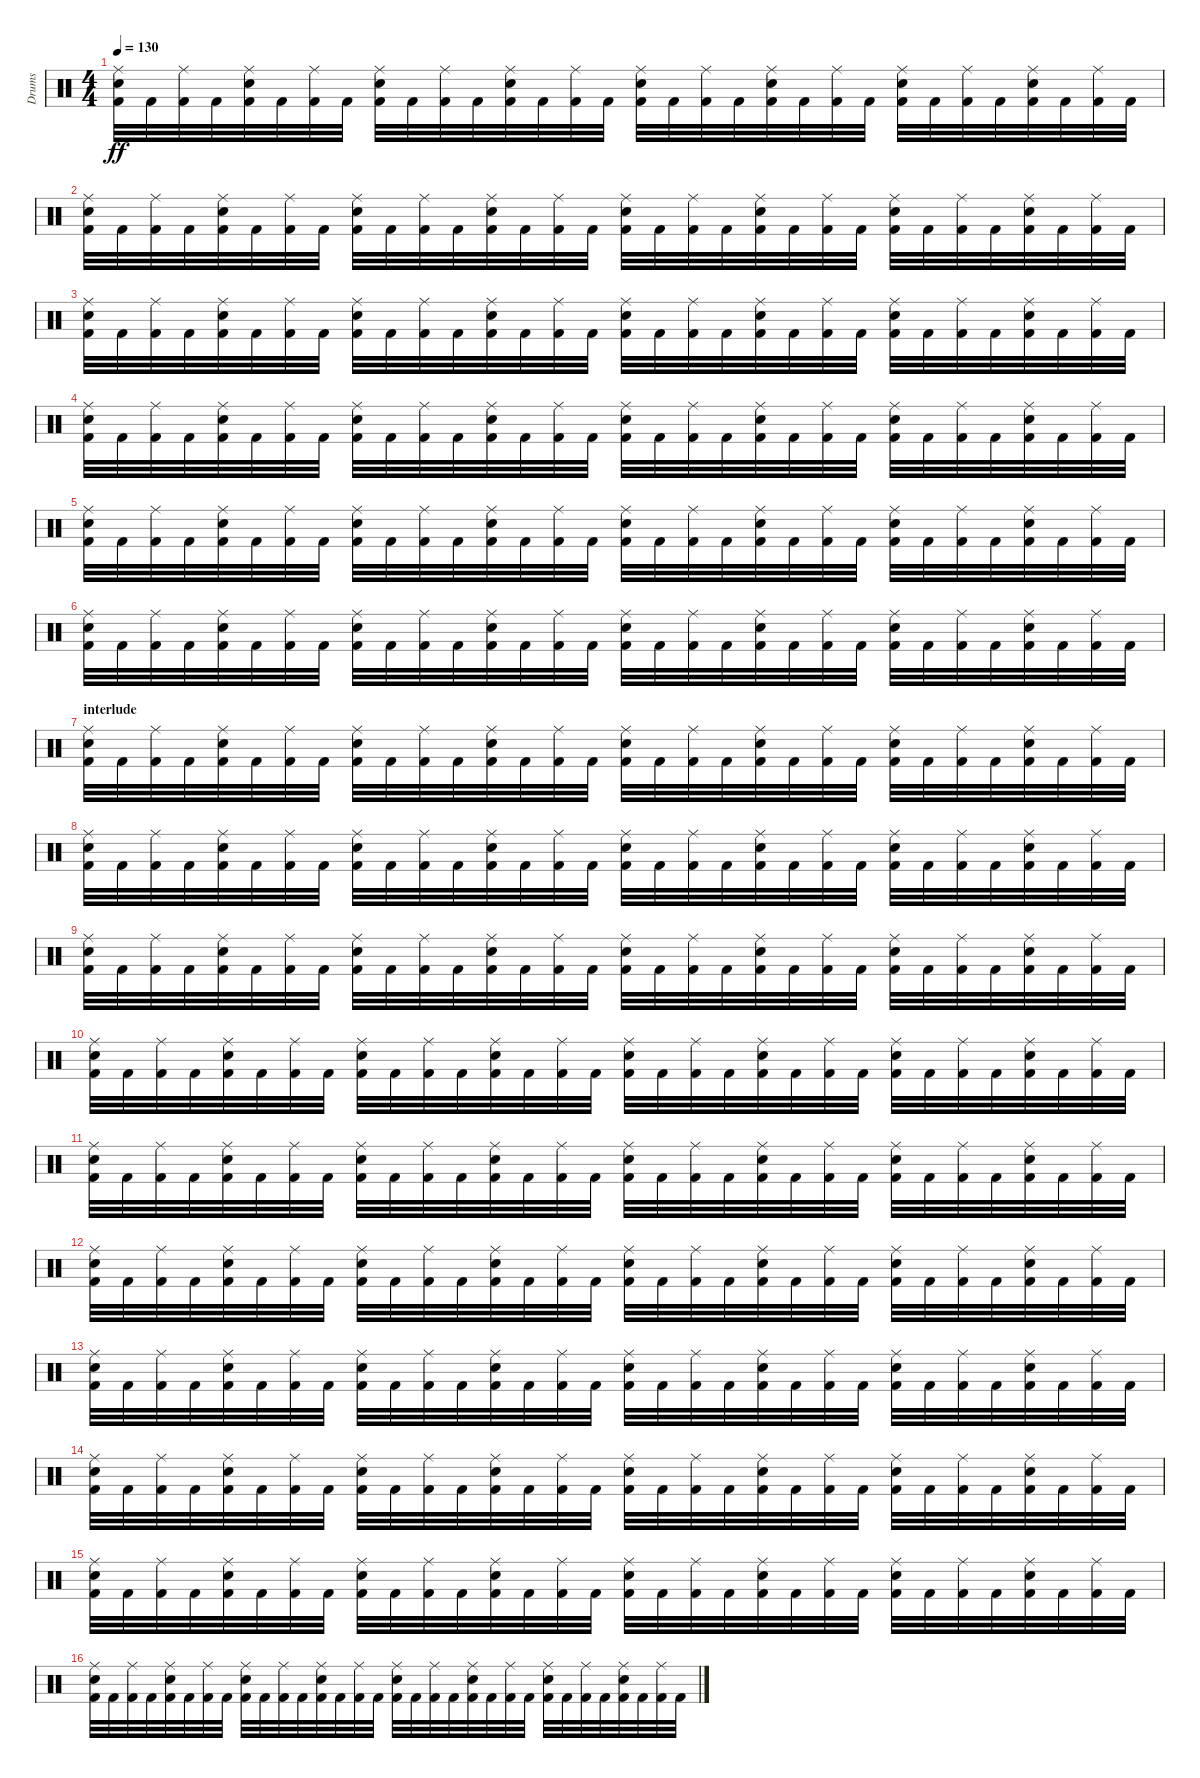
\track ("Drums" "Drums") {instrument percussion}
\staff {score}
\articulation defaults
\ts (4 4)
\tempo 130
\clef neutral
\ks c
("Electric Snare (hit)" "Ride (middle)" "Kick (hit) 2").32{dy ff} "Kick (hit) 2".32 ("Ride (middle)" "Kick (hit) 2").32 "Kick (hit) 2".32 ("Electric Snare (hit)" "Ride (middle)" "Kick (hit) 2").32 "Kick (hit) 2".32 ("Ride (middle)" "Kick (hit) 2").32 "Kick (hit) 2".32 ("Electric Snare (hit)" "Ride (middle)" "Kick (hit) 2").32 "Kick (hit) 2".32 ("Ride (middle)" "Kick (hit) 2").32 "Kick (hit) 2".32 ("Electric Snare (hit)" "Ride (middle)" "Kick (hit) 2").32 "Kick (hit) 2".32 ("Ride (middle)" "Kick (hit) 2").32 "Kick (hit) 2".32 ("Electric Snare (hit)" "Ride (middle)" "Kick (hit) 2").32 "Kick (hit) 2".32 ("Ride (middle)" "Kick (hit) 2").32 "Kick (hit) 2".32 ("Electric Snare (hit)" "Ride (middle)" "Kick (hit) 2").32 "Kick (hit) 2".32 ("Ride (middle)" "Kick (hit) 2").32 "Kick (hit) 2".32 ("Electric Snare (hit)" "Ride (middle)" "Kick (hit) 2").32 "Kick (hit) 2".32 ("Ride (middle)" "Kick (hit) 2").32 "Kick (hit) 2".32 ("Electric Snare (hit)" "Ride (middle)" "Kick (hit) 2").32 "Kick (hit) 2".32 ("Ride (middle)" "Kick (hit) 2").32 "Kick (hit) 2".32 |
("Electric Snare (hit)" "Ride (middle)" "Kick (hit) 2").32 "Kick (hit) 2".32 ("Ride (middle)" "Kick (hit) 2").32 "Kick (hit) 2".32 ("Electric Snare (hit)" "Ride (middle)" "Kick (hit) 2").32 "Kick (hit) 2".32 ("Ride (middle)" "Kick (hit) 2").32 "Kick (hit) 2".32 ("Electric Snare (hit)" "Ride (middle)" "Kick (hit) 2").32 "Kick (hit) 2".32 ("Ride (middle)" "Kick (hit) 2").32 "Kick (hit) 2".32 ("Electric Snare (hit)" "Ride (middle)" "Kick (hit) 2").32 "Kick (hit) 2".32 ("Ride (middle)" "Kick (hit) 2").32 "Kick (hit) 2".32 ("Electric Snare (hit)" "Ride (middle)" "Kick (hit) 2").32 "Kick (hit) 2".32 ("Ride (middle)" "Kick (hit) 2").32 "Kick (hit) 2".32 ("Electric Snare (hit)" "Ride (middle)" "Kick (hit) 2").32 "Kick (hit) 2".32 ("Ride (middle)" "Kick (hit) 2").32 "Kick (hit) 2".32 ("Electric Snare (hit)" "Ride (middle)" "Kick (hit) 2").32 "Kick (hit) 2".32 ("Ride (middle)" "Kick (hit) 2").32 "Kick (hit) 2".32 ("Electric Snare (hit)" "Ride (middle)" "Kick (hit) 2").32 "Kick (hit) 2".32 ("Ride (middle)" "Kick (hit) 2").32 "Kick (hit) 2".32 |
("Electric Snare (hit)" "Ride (middle)" "Kick (hit) 2").32 "Kick (hit) 2".32 ("Ride (middle)" "Kick (hit) 2").32 "Kick (hit) 2".32 ("Electric Snare (hit)" "Ride (middle)" "Kick (hit) 2").32 "Kick (hit) 2".32 ("Ride (middle)" "Kick (hit) 2").32 "Kick (hit) 2".32 ("Electric Snare (hit)" "Ride (middle)" "Kick (hit) 2").32 "Kick (hit) 2".32 ("Ride (middle)" "Kick (hit) 2").32 "Kick (hit) 2".32 ("Electric Snare (hit)" "Ride (middle)" "Kick (hit) 2").32 "Kick (hit) 2".32 ("Ride (middle)" "Kick (hit) 2").32 "Kick (hit) 2".32 ("Electric Snare (hit)" "Ride (middle)" "Kick (hit) 2").32 "Kick (hit) 2".32 ("Ride (middle)" "Kick (hit) 2").32 "Kick (hit) 2".32 ("Electric Snare (hit)" "Ride (middle)" "Kick (hit) 2").32 "Kick (hit) 2".32 ("Ride (middle)" "Kick (hit) 2").32 "Kick (hit) 2".32 ("Electric Snare (hit)" "Ride (middle)" "Kick (hit) 2").32 "Kick (hit) 2".32 ("Ride (middle)" "Kick (hit) 2").32 "Kick (hit) 2".32 ("Electric Snare (hit)" "Ride (middle)" "Kick (hit) 2").32 "Kick (hit) 2".32 ("Ride (middle)" "Kick (hit) 2").32 "Kick (hit) 2".32 |
("Electric Snare (hit)" "Ride (middle)" "Kick (hit) 2").32 "Kick (hit) 2".32 ("Ride (middle)" "Kick (hit) 2").32 "Kick (hit) 2".32 ("Electric Snare (hit)" "Ride (middle)" "Kick (hit) 2").32 "Kick (hit) 2".32 ("Ride (middle)" "Kick (hit) 2").32 "Kick (hit) 2".32 ("Electric Snare (hit)" "Ride (middle)" "Kick (hit) 2").32 "Kick (hit) 2".32 ("Ride (middle)" "Kick (hit) 2").32 "Kick (hit) 2".32 ("Electric Snare (hit)" "Ride (middle)" "Kick (hit) 2").32 "Kick (hit) 2".32 ("Ride (middle)" "Kick (hit) 2").32 "Kick (hit) 2".32 ("Electric Snare (hit)" "Ride (middle)" "Kick (hit) 2").32 "Kick (hit) 2".32 ("Ride (middle)" "Kick (hit) 2").32 "Kick (hit) 2".32 ("Electric Snare (hit)" "Ride (middle)" "Kick (hit) 2").32 "Kick (hit) 2".32 ("Ride (middle)" "Kick (hit) 2").32 "Kick (hit) 2".32 ("Electric Snare (hit)" "Ride (middle)" "Kick (hit) 2").32 "Kick (hit) 2".32 ("Ride (middle)" "Kick (hit) 2").32 "Kick (hit) 2".32 ("Electric Snare (hit)" "Ride (middle)" "Kick (hit) 2").32 "Kick (hit) 2".32 ("Ride (middle)" "Kick (hit) 2").32 "Kick (hit) 2".32 |
("Electric Snare (hit)" "Ride (middle)" "Kick (hit) 2").32 "Kick (hit) 2".32 ("Ride (middle)" "Kick (hit) 2").32 "Kick (hit) 2".32 ("Electric Snare (hit)" "Ride (middle)" "Kick (hit) 2").32 "Kick (hit) 2".32 ("Ride (middle)" "Kick (hit) 2").32 "Kick (hit) 2".32 ("Electric Snare (hit)" "Ride (middle)" "Kick (hit) 2").32 "Kick (hit) 2".32 ("Ride (middle)" "Kick (hit) 2").32 "Kick (hit) 2".32 ("Electric Snare (hit)" "Ride (middle)" "Kick (hit) 2").32 "Kick (hit) 2".32 ("Ride (middle)" "Kick (hit) 2").32 "Kick (hit) 2".32 ("Electric Snare (hit)" "Ride (middle)" "Kick (hit) 2").32 "Kick (hit) 2".32 ("Ride (middle)" "Kick (hit) 2").32 "Kick (hit) 2".32 ("Electric Snare (hit)" "Ride (middle)" "Kick (hit) 2").32 "Kick (hit) 2".32 ("Ride (middle)" "Kick (hit) 2").32 "Kick (hit) 2".32 ("Electric Snare (hit)" "Ride (middle)" "Kick (hit) 2").32 "Kick (hit) 2".32 ("Ride (middle)" "Kick (hit) 2").32 "Kick (hit) 2".32 ("Electric Snare (hit)" "Ride (middle)" "Kick (hit) 2").32 "Kick (hit) 2".32 ("Ride (middle)" "Kick (hit) 2").32 "Kick (hit) 2".32 |
("Electric Snare (hit)" "Ride (middle)" "Kick (hit) 2").32 "Kick (hit) 2".32 ("Ride (middle)" "Kick (hit) 2").32 "Kick (hit) 2".32 ("Electric Snare (hit)" "Ride (middle)" "Kick (hit) 2").32 "Kick (hit) 2".32 ("Ride (middle)" "Kick (hit) 2").32 "Kick (hit) 2".32 ("Electric Snare (hit)" "Ride (middle)" "Kick (hit) 2").32 "Kick (hit) 2".32 ("Ride (middle)" "Kick (hit) 2").32 "Kick (hit) 2".32 ("Electric Snare (hit)" "Ride (middle)" "Kick (hit) 2").32 "Kick (hit) 2".32 ("Ride (middle)" "Kick (hit) 2").32 "Kick (hit) 2".32 ("Electric Snare (hit)" "Ride (middle)" "Kick (hit) 2").32 "Kick (hit) 2".32 ("Ride (middle)" "Kick (hit) 2").32 "Kick (hit) 2".32 ("Electric Snare (hit)" "Ride (middle)" "Kick (hit) 2").32 "Kick (hit) 2".32 ("Ride (middle)" "Kick (hit) 2").32 "Kick (hit) 2".32 ("Electric Snare (hit)" "Ride (middle)" "Kick (hit) 2").32 "Kick (hit) 2".32 ("Ride (middle)" "Kick (hit) 2").32 "Kick (hit) 2".32 ("Electric Snare (hit)" "Ride (middle)" "Kick (hit) 2").32 "Kick (hit) 2".32 ("Ride (middle)" "Kick (hit) 2").32 "Kick (hit) 2".32 |
\section ("" "interlude")
("Electric Snare (hit)" "Ride (middle)" "Kick (hit) 2").32 "Kick (hit) 2".32 ("Ride (middle)" "Kick (hit) 2").32 "Kick (hit) 2".32 ("Electric Snare (hit)" "Ride (middle)" "Kick (hit) 2").32 "Kick (hit) 2".32 ("Ride (middle)" "Kick (hit) 2").32 "Kick (hit) 2".32 ("Electric Snare (hit)" "Ride (middle)" "Kick (hit) 2").32 "Kick (hit) 2".32 ("Ride (middle)" "Kick (hit) 2").32 "Kick (hit) 2".32 ("Electric Snare (hit)" "Ride (middle)" "Kick (hit) 2").32 "Kick (hit) 2".32 ("Ride (middle)" "Kick (hit) 2").32 "Kick (hit) 2".32 ("Electric Snare (hit)" "Ride (middle)" "Kick (hit) 2").32 "Kick (hit) 2".32 ("Ride (middle)" "Kick (hit) 2").32 "Kick (hit) 2".32 ("Electric Snare (hit)" "Ride (middle)" "Kick (hit) 2").32 "Kick (hit) 2".32 ("Ride (middle)" "Kick (hit) 2").32 "Kick (hit) 2".32 ("Electric Snare (hit)" "Ride (middle)" "Kick (hit) 2").32 "Kick (hit) 2".32 ("Ride (middle)" "Kick (hit) 2").32 "Kick (hit) 2".32 ("Electric Snare (hit)" "Ride (middle)" "Kick (hit) 2").32 "Kick (hit) 2".32 ("Ride (middle)" "Kick (hit) 2").32 "Kick (hit) 2".32 |
("Electric Snare (hit)" "Ride (middle)" "Kick (hit) 2").32 "Kick (hit) 2".32 ("Ride (middle)" "Kick (hit) 2").32 "Kick (hit) 2".32 ("Electric Snare (hit)" "Ride (middle)" "Kick (hit) 2").32 "Kick (hit) 2".32 ("Ride (middle)" "Kick (hit) 2").32 "Kick (hit) 2".32 ("Electric Snare (hit)" "Ride (middle)" "Kick (hit) 2").32 "Kick (hit) 2".32 ("Ride (middle)" "Kick (hit) 2").32 "Kick (hit) 2".32 ("Electric Snare (hit)" "Ride (middle)" "Kick (hit) 2").32 "Kick (hit) 2".32 ("Ride (middle)" "Kick (hit) 2").32 "Kick (hit) 2".32 ("Electric Snare (hit)" "Ride (middle)" "Kick (hit) 2").32 "Kick (hit) 2".32 ("Ride (middle)" "Kick (hit) 2").32 "Kick (hit) 2".32 ("Electric Snare (hit)" "Ride (middle)" "Kick (hit) 2").32 "Kick (hit) 2".32 ("Ride (middle)" "Kick (hit) 2").32 "Kick (hit) 2".32 ("Electric Snare (hit)" "Ride (middle)" "Kick (hit) 2").32 "Kick (hit) 2".32 ("Ride (middle)" "Kick (hit) 2").32 "Kick (hit) 2".32 ("Electric Snare (hit)" "Ride (middle)" "Kick (hit) 2").32 "Kick (hit) 2".32 ("Ride (middle)" "Kick (hit) 2").32 "Kick (hit) 2".32 |
("Electric Snare (hit)" "Ride (middle)" "Kick (hit) 2").32 "Kick (hit) 2".32 ("Ride (middle)" "Kick (hit) 2").32 "Kick (hit) 2".32 ("Electric Snare (hit)" "Ride (middle)" "Kick (hit) 2").32 "Kick (hit) 2".32 ("Ride (middle)" "Kick (hit) 2").32 "Kick (hit) 2".32 ("Electric Snare (hit)" "Ride (middle)" "Kick (hit) 2").32 "Kick (hit) 2".32 ("Ride (middle)" "Kick (hit) 2").32 "Kick (hit) 2".32 ("Electric Snare (hit)" "Ride (middle)" "Kick (hit) 2").32 "Kick (hit) 2".32 ("Ride (middle)" "Kick (hit) 2").32 "Kick (hit) 2".32 ("Electric Snare (hit)" "Ride (middle)" "Kick (hit) 2").32 "Kick (hit) 2".32 ("Ride (middle)" "Kick (hit) 2").32 "Kick (hit) 2".32 ("Electric Snare (hit)" "Ride (middle)" "Kick (hit) 2").32 "Kick (hit) 2".32 ("Ride (middle)" "Kick (hit) 2").32 "Kick (hit) 2".32 ("Electric Snare (hit)" "Ride (middle)" "Kick (hit) 2").32 "Kick (hit) 2".32 ("Ride (middle)" "Kick (hit) 2").32 "Kick (hit) 2".32 ("Electric Snare (hit)" "Ride (middle)" "Kick (hit) 2").32 "Kick (hit) 2".32 ("Ride (middle)" "Kick (hit) 2").32 "Kick (hit) 2".32 |
("Electric Snare (hit)" "Ride (middle)" "Kick (hit) 2").32 "Kick (hit) 2".32 ("Ride (middle)" "Kick (hit) 2").32 "Kick (hit) 2".32 ("Electric Snare (hit)" "Ride (middle)" "Kick (hit) 2").32 "Kick (hit) 2".32 ("Ride (middle)" "Kick (hit) 2").32 "Kick (hit) 2".32 ("Electric Snare (hit)" "Ride (middle)" "Kick (hit) 2").32 "Kick (hit) 2".32 ("Ride (middle)" "Kick (hit) 2").32 "Kick (hit) 2".32 ("Electric Snare (hit)" "Ride (middle)" "Kick (hit) 2").32 "Kick (hit) 2".32 ("Ride (middle)" "Kick (hit) 2").32 "Kick (hit) 2".32 ("Electric Snare (hit)" "Ride (middle)" "Kick (hit) 2").32 "Kick (hit) 2".32 ("Ride (middle)" "Kick (hit) 2").32 "Kick (hit) 2".32 ("Electric Snare (hit)" "Ride (middle)" "Kick (hit) 2").32 "Kick (hit) 2".32 ("Ride (middle)" "Kick (hit) 2").32 "Kick (hit) 2".32 ("Electric Snare (hit)" "Ride (middle)" "Kick (hit) 2").32 "Kick (hit) 2".32 ("Ride (middle)" "Kick (hit) 2").32 "Kick (hit) 2".32 ("Electric Snare (hit)" "Ride (middle)" "Kick (hit) 2").32 "Kick (hit) 2".32 ("Ride (middle)" "Kick (hit) 2").32 "Kick (hit) 2".32 |
("Electric Snare (hit)" "Ride (middle)" "Kick (hit) 2").32 "Kick (hit) 2".32 ("Ride (middle)" "Kick (hit) 2").32 "Kick (hit) 2".32 ("Electric Snare (hit)" "Ride (middle)" "Kick (hit) 2").32 "Kick (hit) 2".32 ("Ride (middle)" "Kick (hit) 2").32 "Kick (hit) 2".32 ("Electric Snare (hit)" "Ride (middle)" "Kick (hit) 2").32 "Kick (hit) 2".32 ("Ride (middle)" "Kick (hit) 2").32 "Kick (hit) 2".32 ("Electric Snare (hit)" "Ride (middle)" "Kick (hit) 2").32 "Kick (hit) 2".32 ("Ride (middle)" "Kick (hit) 2").32 "Kick (hit) 2".32 ("Electric Snare (hit)" "Ride (middle)" "Kick (hit) 2").32 "Kick (hit) 2".32 ("Ride (middle)" "Kick (hit) 2").32 "Kick (hit) 2".32 ("Electric Snare (hit)" "Ride (middle)" "Kick (hit) 2").32 "Kick (hit) 2".32 ("Ride (middle)" "Kick (hit) 2").32 "Kick (hit) 2".32 ("Electric Snare (hit)" "Ride (middle)" "Kick (hit) 2").32 "Kick (hit) 2".32 ("Ride (middle)" "Kick (hit) 2").32 "Kick (hit) 2".32 ("Electric Snare (hit)" "Ride (middle)" "Kick (hit) 2").32 "Kick (hit) 2".32 ("Ride (middle)" "Kick (hit) 2").32 "Kick (hit) 2".32 |
("Electric Snare (hit)" "Ride (middle)" "Kick (hit) 2").32 "Kick (hit) 2".32 ("Ride (middle)" "Kick (hit) 2").32 "Kick (hit) 2".32 ("Electric Snare (hit)" "Ride (middle)" "Kick (hit) 2").32 "Kick (hit) 2".32 ("Ride (middle)" "Kick (hit) 2").32 "Kick (hit) 2".32 ("Electric Snare (hit)" "Ride (middle)" "Kick (hit) 2").32 "Kick (hit) 2".32 ("Ride (middle)" "Kick (hit) 2").32 "Kick (hit) 2".32 ("Electric Snare (hit)" "Ride (middle)" "Kick (hit) 2").32 "Kick (hit) 2".32 ("Ride (middle)" "Kick (hit) 2").32 "Kick (hit) 2".32 ("Electric Snare (hit)" "Ride (middle)" "Kick (hit) 2").32 "Kick (hit) 2".32 ("Ride (middle)" "Kick (hit) 2").32 "Kick (hit) 2".32 ("Electric Snare (hit)" "Ride (middle)" "Kick (hit) 2").32 "Kick (hit) 2".32 ("Ride (middle)" "Kick (hit) 2").32 "Kick (hit) 2".32 ("Electric Snare (hit)" "Ride (middle)" "Kick (hit) 2").32 "Kick (hit) 2".32 ("Ride (middle)" "Kick (hit) 2").32 "Kick (hit) 2".32 ("Electric Snare (hit)" "Ride (middle)" "Kick (hit) 2").32 "Kick (hit) 2".32 ("Ride (middle)" "Kick (hit) 2").32 "Kick (hit) 2".32 |
("Electric Snare (hit)" "Ride (middle)" "Kick (hit) 2").32 "Kick (hit) 2".32 ("Ride (middle)" "Kick (hit) 2").32 "Kick (hit) 2".32 ("Electric Snare (hit)" "Ride (middle)" "Kick (hit) 2").32 "Kick (hit) 2".32 ("Ride (middle)" "Kick (hit) 2").32 "Kick (hit) 2".32 ("Electric Snare (hit)" "Ride (middle)" "Kick (hit) 2").32 "Kick (hit) 2".32 ("Ride (middle)" "Kick (hit) 2").32 "Kick (hit) 2".32 ("Electric Snare (hit)" "Ride (middle)" "Kick (hit) 2").32 "Kick (hit) 2".32 ("Ride (middle)" "Kick (hit) 2").32 "Kick (hit) 2".32 ("Electric Snare (hit)" "Ride (middle)" "Kick (hit) 2").32 "Kick (hit) 2".32 ("Ride (middle)" "Kick (hit) 2").32 "Kick (hit) 2".32 ("Electric Snare (hit)" "Ride (middle)" "Kick (hit) 2").32 "Kick (hit) 2".32 ("Ride (middle)" "Kick (hit) 2").32 "Kick (hit) 2".32 ("Electric Snare (hit)" "Ride (middle)" "Kick (hit) 2").32 "Kick (hit) 2".32 ("Ride (middle)" "Kick (hit) 2").32 "Kick (hit) 2".32 ("Electric Snare (hit)" "Ride (middle)" "Kick (hit) 2").32 "Kick (hit) 2".32 ("Ride (middle)" "Kick (hit) 2").32 "Kick (hit) 2".32 |
("Electric Snare (hit)" "Ride (middle)" "Kick (hit) 2").32 "Kick (hit) 2".32 ("Ride (middle)" "Kick (hit) 2").32 "Kick (hit) 2".32 ("Electric Snare (hit)" "Ride (middle)" "Kick (hit) 2").32 "Kick (hit) 2".32 ("Ride (middle)" "Kick (hit) 2").32 "Kick (hit) 2".32 ("Electric Snare (hit)" "Ride (middle)" "Kick (hit) 2").32 "Kick (hit) 2".32 ("Ride (middle)" "Kick (hit) 2").32 "Kick (hit) 2".32 ("Electric Snare (hit)" "Ride (middle)" "Kick (hit) 2").32 "Kick (hit) 2".32 ("Ride (middle)" "Kick (hit) 2").32 "Kick (hit) 2".32 ("Electric Snare (hit)" "Ride (middle)" "Kick (hit) 2").32 "Kick (hit) 2".32 ("Ride (middle)" "Kick (hit) 2").32 "Kick (hit) 2".32 ("Electric Snare (hit)" "Ride (middle)" "Kick (hit) 2").32 "Kick (hit) 2".32 ("Ride (middle)" "Kick (hit) 2").32 "Kick (hit) 2".32 ("Electric Snare (hit)" "Ride (middle)" "Kick (hit) 2").32 "Kick (hit) 2".32 ("Ride (middle)" "Kick (hit) 2").32 "Kick (hit) 2".32 ("Electric Snare (hit)" "Ride (middle)" "Kick (hit) 2").32 "Kick (hit) 2".32 ("Ride (middle)" "Kick (hit) 2").32 "Kick (hit) 2".32 |
("Electric Snare (hit)" "Ride (middle)" "Kick (hit) 2").32 "Kick (hit) 2".32 ("Ride (middle)" "Kick (hit) 2").32 "Kick (hit) 2".32 ("Electric Snare (hit)" "Ride (middle)" "Kick (hit) 2").32 "Kick (hit) 2".32 ("Ride (middle)" "Kick (hit) 2").32 "Kick (hit) 2".32 ("Electric Snare (hit)" "Ride (middle)" "Kick (hit) 2").32 "Kick (hit) 2".32 ("Ride (middle)" "Kick (hit) 2").32 "Kick (hit) 2".32 ("Electric Snare (hit)" "Ride (middle)" "Kick (hit) 2").32 "Kick (hit) 2".32 ("Ride (middle)" "Kick (hit) 2").32 "Kick (hit) 2".32 ("Electric Snare (hit)" "Ride (middle)" "Kick (hit) 2").32 "Kick (hit) 2".32 ("Ride (middle)" "Kick (hit) 2").32 "Kick (hit) 2".32 ("Electric Snare (hit)" "Ride (middle)" "Kick (hit) 2").32 "Kick (hit) 2".32 ("Ride (middle)" "Kick (hit) 2").32 "Kick (hit) 2".32 ("Electric Snare (hit)" "Ride (middle)" "Kick (hit) 2").32 "Kick (hit) 2".32 ("Ride (middle)" "Kick (hit) 2").32 "Kick (hit) 2".32 ("Electric Snare (hit)" "Ride (middle)" "Kick (hit) 2").32 "Kick (hit) 2".32 ("Ride (middle)" "Kick (hit) 2").32 "Kick (hit) 2".32 |
("Electric Snare (hit)" "Ride (middle)" "Kick (hit) 2").32 "Kick (hit) 2".32 ("Ride (middle)" "Kick (hit) 2").32 "Kick (hit) 2".32 ("Electric Snare (hit)" "Ride (middle)" "Kick (hit) 2").32 "Kick (hit) 2".32 ("Ride (middle)" "Kick (hit) 2").32 "Kick (hit) 2".32 ("Electric Snare (hit)" "Ride (middle)" "Kick (hit) 2").32 "Kick (hit) 2".32 ("Ride (middle)" "Kick (hit) 2").32 "Kick (hit) 2".32 ("Electric Snare (hit)" "Ride (middle)" "Kick (hit) 2").32 "Kick (hit) 2".32 ("Ride (middle)" "Kick (hit) 2").32 "Kick (hit) 2".32 ("Electric Snare (hit)" "Ride (middle)" "Kick (hit) 2").32 "Kick (hit) 2".32 ("Ride (middle)" "Kick (hit) 2").32 "Kick (hit) 2".32 ("Electric Snare (hit)" "Ride (middle)" "Kick (hit) 2").32 "Kick (hit) 2".32 ("Ride (middle)" "Kick (hit) 2").32 "Kick (hit) 2".32 ("Electric Snare (hit)" "Ride (middle)" "Kick (hit) 2").32 "Kick (hit) 2".32 ("Ride (middle)" "Kick (hit) 2").32 "Kick (hit) 2".32 ("Electric Snare (hit)" "Ride (middle)" "Kick (hit) 2").32 "Kick (hit) 2".32 ("Ride (middle)" "Kick (hit) 2").32 "Kick (hit) 2".32
